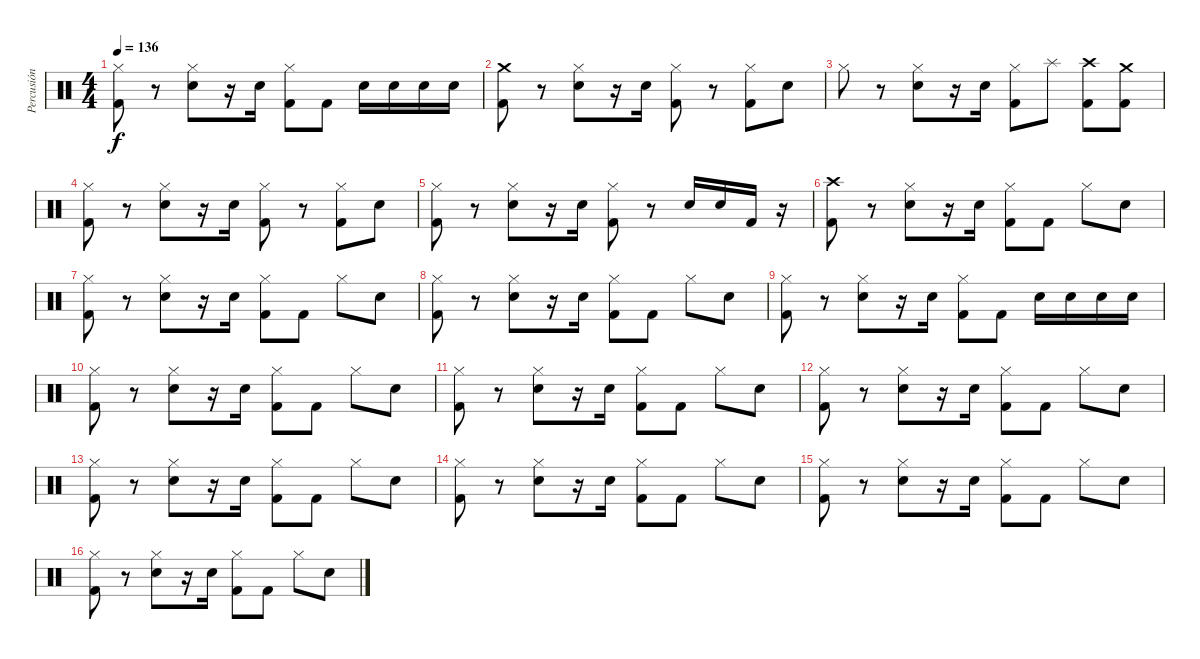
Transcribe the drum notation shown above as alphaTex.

\track ("Percusión" "Percusión") {instrument percussion}
\staff {score}
\articulation defaults
\ts (4 4)
\tempo 136
\clef neutral
\ks c
("Hi-Hat (closed)" "Kick (hit) 2").8{dy f} r.8 ("Hi-Hat (closed)" "Electric Snare (hit)").8 r.16 "Electric Snare (hit)".16 ("Hi-Hat (closed)" "Kick (hit) 2").8 "Kick (hit) 2".8 "Electric Snare (hit)".16 "Electric Snare (hit)".16 "Electric Snare (hit)".16 "Electric Snare (hit)".16 |
("Crash medium (hit)" "Kick (hit) 2").8 r.8 ("Hi-Hat (closed)" "Electric Snare (hit)").8 r.16 "Electric Snare (hit)".16 ("Hi-Hat (closed)" "Kick (hit) 2").8 r.8 ("Hi-Hat (closed)" "Kick (hit) 2").8 "Electric Snare (hit)".8 |
"Hi-Hat (closed)".8 r.8 ("Hi-Hat (closed)" "Electric Snare (hit)").8 r.16 "Electric Snare (hit)".16 ("Hi-Hat (closed)" "Kick (hit) 2").8 "Splash (hit)".8 ("Crash high (hit)" "Kick (hit) 2").8 ("Crash medium (hit)" "Kick (hit) 2").8 |
("Hi-Hat (closed)" "Kick (hit) 2").8 r.8 ("Hi-Hat (closed)" "Electric Snare (hit)").8 r.16 "Electric Snare (hit)".16 ("Hi-Hat (closed)" "Kick (hit) 2").8 r.8 ("Hi-Hat (closed)" "Kick (hit) 2").8 "Electric Snare (hit)".8 |
("Hi-Hat (closed)" "Kick (hit) 2").8 r.8 ("Hi-Hat (closed)" "Electric Snare (hit)").8 r.16 "Electric Snare (hit)".16 ("Hi-Hat (closed)" "Kick (hit) 2").8 r.8 "Electric Snare (hit)".16 "Electric Snare (hit)".16 "Kick (hit) 2".16 r.16 |
("Crash high (hit)" "Kick (hit) 2").8 r.8 ("Hi-Hat (closed)" "Electric Snare (hit)").8 r.16 "Electric Snare (hit)".16 ("Hi-Hat (closed)" "Kick (hit) 2").8 "Kick (hit) 2".8 "Hi-Hat (closed)".8 "Electric Snare (hit)".8 |
("Hi-Hat (closed)" "Kick (hit) 2").8 r.8 ("Hi-Hat (closed)" "Electric Snare (hit)").8 r.16 "Electric Snare (hit)".16 ("Hi-Hat (closed)" "Kick (hit) 2").8 "Kick (hit) 2".8 "Hi-Hat (closed)".8 "Electric Snare (hit)".8 |
("Hi-Hat (closed)" "Kick (hit) 2").8 r.8 ("Hi-Hat (closed)" "Electric Snare (hit)").8 r.16 "Electric Snare (hit)".16 ("Hi-Hat (closed)" "Kick (hit) 2").8 "Kick (hit) 2".8 "Hi-Hat (closed)".8 "Electric Snare (hit)".8 |
("Hi-Hat (closed)" "Kick (hit) 2").8 r.8 ("Hi-Hat (closed)" "Electric Snare (hit)").8 r.16 "Electric Snare (hit)".16 ("Hi-Hat (closed)" "Kick (hit) 2").8 "Kick (hit) 2".8 "Electric Snare (hit)".16 "Electric Snare (hit)".16 "Electric Snare (hit)".16 "Electric Snare (hit)".16 |
("Hi-Hat (closed)" "Kick (hit) 2").8 r.8 ("Hi-Hat (closed)" "Electric Snare (hit)").8 r.16 "Electric Snare (hit)".16 ("Hi-Hat (closed)" "Kick (hit) 2").8 "Kick (hit) 2".8 "Hi-Hat (closed)".8 "Electric Snare (hit)".8 |
("Hi-Hat (closed)" "Kick (hit) 2").8 r.8 ("Hi-Hat (closed)" "Electric Snare (hit)").8 r.16 "Electric Snare (hit)".16 ("Hi-Hat (closed)" "Kick (hit) 2").8 "Kick (hit) 2".8 "Hi-Hat (closed)".8 "Electric Snare (hit)".8 |
("Hi-Hat (closed)" "Kick (hit) 2").8 r.8 ("Hi-Hat (closed)" "Electric Snare (hit)").8 r.16 "Electric Snare (hit)".16 ("Hi-Hat (closed)" "Kick (hit) 2").8 "Kick (hit) 2".8 "Hi-Hat (closed)".8 "Electric Snare (hit)".8 |
("Hi-Hat (closed)" "Kick (hit) 2").8 r.8 ("Hi-Hat (closed)" "Electric Snare (hit)").8 r.16 "Electric Snare (hit)".16 ("Hi-Hat (closed)" "Kick (hit) 2").8 "Kick (hit) 2".8 "Hi-Hat (closed)".8 "Electric Snare (hit)".8 |
("Hi-Hat (closed)" "Kick (hit) 2").8 r.8 ("Hi-Hat (closed)" "Electric Snare (hit)").8 r.16 "Electric Snare (hit)".16 ("Hi-Hat (closed)" "Kick (hit) 2").8 "Kick (hit) 2".8 "Hi-Hat (closed)".8 "Electric Snare (hit)".8 |
("Hi-Hat (closed)" "Kick (hit) 2").8 r.8 ("Hi-Hat (closed)" "Electric Snare (hit)").8 r.16 "Electric Snare (hit)".16 ("Hi-Hat (closed)" "Kick (hit) 2").8 "Kick (hit) 2".8 "Hi-Hat (closed)".8 "Electric Snare (hit)".8 |
("Hi-Hat (closed)" "Kick (hit) 2").8 r.8 ("Hi-Hat (closed)" "Electric Snare (hit)").8 r.16 "Electric Snare (hit)".16 ("Hi-Hat (closed)" "Kick (hit) 2").8 "Kick (hit) 2".8 "Hi-Hat (closed)".8 "Electric Snare (hit)".8
